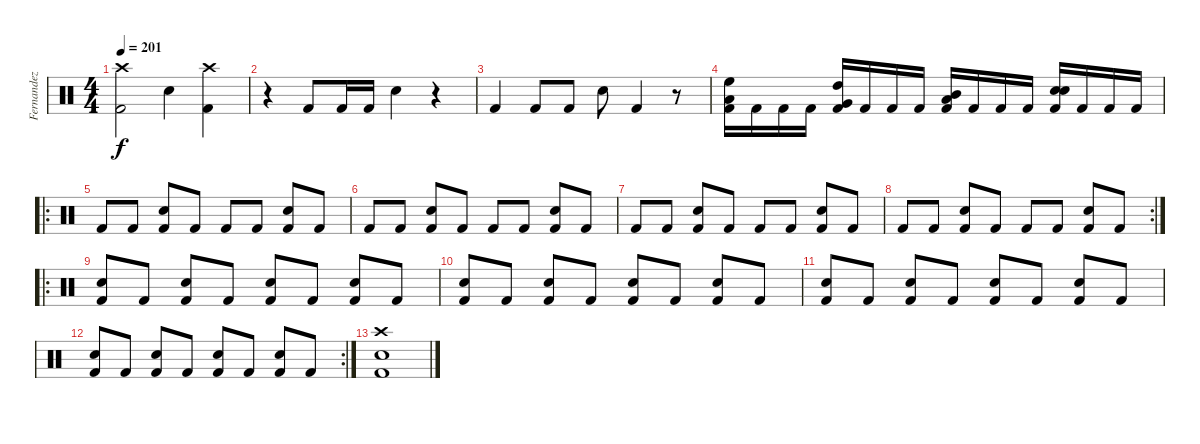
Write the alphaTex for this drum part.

\track ("Fernandez" "Fernandez") {instrument percussion}
\staff {score}
\articulation defaults
\ts (4 4)
\tempo 201
\clef neutral
\ks c
("Crash high (hit)" "Kick (hit) 2").2{dy f} "Snare (hit) 2".4 ("Crash high (hit)" "Kick (hit) 2").4 |
r.4 "Kick (hit) 2".8 "Kick (hit) 2".16 "Kick (hit) 2".16 "Snare (hit) 2".4 r.4 |
"Kick (hit) 2".4 "Kick (hit) 2".8 "Kick (hit) 2".8 "Snare (hit) 2".8 "Kick (hit) 2".4 r.8 |
("Kick (hit) 2" "Low Tom (hit)" "High Floor Tom (hit)").16 "Kick (hit) 2".16 "Kick (hit) 2".16 "Kick (hit) 2".16 ("Kick (hit) 2" "High Tom (hit)" "Very Low Tom (hit)").16 "Kick (hit) 2".16 "Kick (hit) 2".16 "Kick (hit) 2".16 ("Kick (hit) 2" "Low Floor Tom (hit)" "Mid Tom (hit)").16 "Kick (hit) 2".16 "Kick (hit) 2".16 "Kick (hit) 2".16 ("Kick (hit) 2" "Snare (hit) 2" "Snare (hit) 2").16 "Kick (hit) 2".16 "Kick (hit) 2".16 "Kick (hit) 2".16 |
\ro "Kick (hit) 2".8 "Kick (hit) 2".8
("Snare (hit) 2" "Kick (hit) 2").8 "Kick (hit) 2".8 "Kick (hit) 2".8 "Kick (hit) 2".8 ("Snare (hit) 2" "Kick (hit) 2").8 "Kick (hit) 2".8 |
"Kick (hit) 2".8 "Kick (hit) 2".8 ("Snare (hit) 2" "Kick (hit) 2").8 "Kick (hit) 2".8 "Kick (hit) 2".8 "Kick (hit) 2".8 ("Snare (hit) 2" "Kick (hit) 2").8 "Kick (hit) 2".8 |
"Kick (hit) 2".8 "Kick (hit) 2".8 ("Snare (hit) 2" "Kick (hit) 2").8 "Kick (hit) 2".8 "Kick (hit) 2".8 "Kick (hit) 2".8 ("Snare (hit) 2" "Kick (hit) 2").8 "Kick (hit) 2".8 |
\rc 2 "Kick (hit) 2".8 "Kick (hit) 2".8
("Snare (hit) 2" "Kick (hit) 2").8 "Kick (hit) 2".8 "Kick (hit) 2".8 "Kick (hit) 2".8 ("Snare (hit) 2" "Kick (hit) 2").8 "Kick (hit) 2".8 |
\ro
("Snare (hit) 2" "Kick (hit) 2").8 "Kick (hit) 2".8 ("Snare (hit) 2" "Kick (hit) 2").8 "Kick (hit) 2".8 ("Snare (hit) 2" "Kick (hit) 2").8 "Kick (hit) 2".8 ("Snare (hit) 2" "Kick (hit) 2").8 "Kick (hit) 2".8 |
("Snare (hit) 2" "Kick (hit) 2").8 "Kick (hit) 2".8 ("Snare (hit) 2" "Kick (hit) 2").8 "Kick (hit) 2".8 ("Snare (hit) 2" "Kick (hit) 2").8 "Kick (hit) 2".8 ("Snare (hit) 2" "Kick (hit) 2").8 "Kick (hit) 2".8 |
("Snare (hit) 2" "Kick (hit) 2").8 "Kick (hit) 2".8 ("Snare (hit) 2" "Kick (hit) 2").8 "Kick (hit) 2".8 ("Snare (hit) 2" "Kick (hit) 2").8 "Kick (hit) 2".8 ("Snare (hit) 2" "Kick (hit) 2").8 "Kick (hit) 2".8 |
\rc 2
("Snare (hit) 2" "Kick (hit) 2").8 "Kick (hit) 2".8 ("Snare (hit) 2" "Kick (hit) 2").8 "Kick (hit) 2".8 ("Snare (hit) 2" "Kick (hit) 2").8 "Kick (hit) 2".8 ("Snare (hit) 2" "Kick (hit) 2").8 "Kick (hit) 2".8 |
("Crash high (hit)" "Snare (hit) 2" "Kick (hit) 2").1
